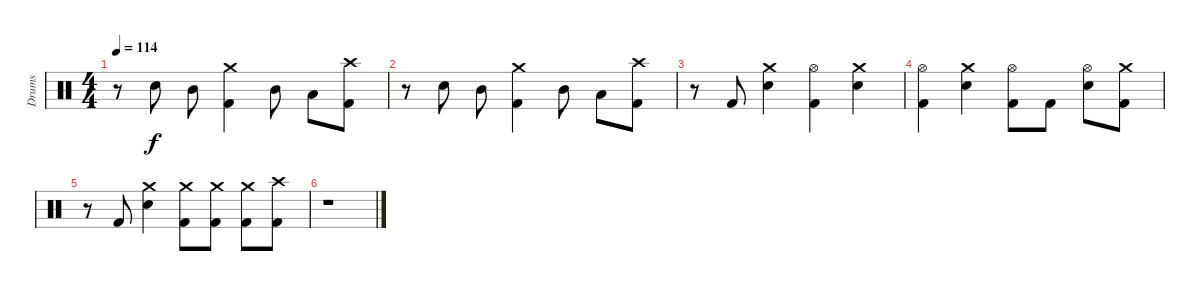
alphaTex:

\track ("Drums" "Drums") {instrument percussion}
\staff {score}
\articulation defaults
\ts (4 4)
\tempo 114
\clef neutral
\ks c
r.8{dy f} "Snare (hit) 2".8 "Mid Tom (hit)".8 ("Crash medium (hit)" "Kick (hit) 2").4 "Mid Tom (hit)".8 "Low Tom (hit)".8 ("Crash high (hit)" "Kick (hit) 2").8 |
r.8 "Snare (hit) 2".8 "Mid Tom (hit)".8 ("Crash medium (hit)" "Kick (hit) 2").4 "Mid Tom (hit)".8 "Low Tom (hit)".8 ("Crash high (hit)" "Kick (hit) 2").8 |
r.8 "Kick (hit) 2".8 ("Crash medium (hit)" "Snare (hit) 2").4 ("Hi-Hat (open)" "Kick (hit) 2").4 ("Crash medium (hit)" "Snare (hit) 2").4 |
("Hi-Hat (open)" "Kick (hit) 2").4 ("Crash medium (hit)" "Snare (hit) 2").4 ("Hi-Hat (open)" "Kick (hit) 2").8 "Kick (hit) 2".8 ("Hi-Hat (open)" "Snare (hit) 2").8 ("Crash medium (hit)" "Kick (hit) 2").8 |
r.8 "Kick (hit) 2".8 ("Crash medium (hit)" "Snare (hit) 2").4 ("Crash medium (hit)" "Kick (hit) 2").8 ("Crash medium (hit)" "Kick (hit) 2").8 ("Crash medium (hit)" "Kick (hit) 2").8 ("Crash high (hit)" "Kick (hit) 2").8 |
r.1
